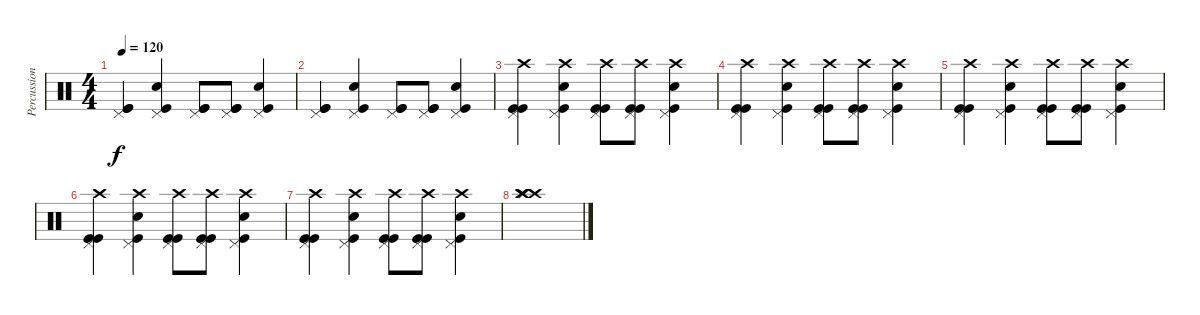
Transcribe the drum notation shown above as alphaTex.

\track ("Percussions" "Percussion") {instrument percussion}
\staff {score}
\articulation defaults
\ts (4 4)
\tempo 120
\clef neutral
\ks c
("Kick (hit)" "Pedal Hi-Hat (hit)" "Kick (hit)").4{dy f} ("Electric Snare (hit)" "Pedal Hi-Hat (hit)" "Kick (hit)").4 ("Kick (hit)" "Pedal Hi-Hat (hit)" "Kick (hit)").8 ("Kick (hit)" "Pedal Hi-Hat (hit)" "Kick (hit)").8 ("Electric Snare (hit)" "Pedal Hi-Hat (hit)" "Kick (hit)").4 |
("Kick (hit)" "Pedal Hi-Hat (hit)" "Kick (hit)").4 ("Electric Snare (hit)" "Pedal Hi-Hat (hit)" "Kick (hit)").4 ("Kick (hit)" "Pedal Hi-Hat (hit)" "Kick (hit)").8 ("Kick (hit)" "Pedal Hi-Hat (hit)" "Kick (hit)").8 ("Electric Snare (hit)" "Pedal Hi-Hat (hit)" "Kick (hit)").4 |
("Kick (hit)" "Crash high (hit)" "Pedal Hi-Hat (hit)" "Kick (hit)").4 ("Electric Snare (hit)" "Crash high (hit)" "Pedal Hi-Hat (hit)" "Kick (hit)").4 ("Kick (hit)" "Crash high (hit)" "Pedal Hi-Hat (hit)" "Kick (hit)").8 ("Kick (hit)" "Crash high (hit)" "Pedal Hi-Hat (hit)" "Kick (hit)").8 ("Electric Snare (hit)" "Crash high (hit)" "Pedal Hi-Hat (hit)" "Kick (hit)").4 |
("Kick (hit)" "Crash high (hit)" "Pedal Hi-Hat (hit)" "Kick (hit)").4 ("Electric Snare (hit)" "Crash high (hit)" "Pedal Hi-Hat (hit)" "Kick (hit)").4 ("Kick (hit)" "Crash high (hit)" "Pedal Hi-Hat (hit)" "Kick (hit)").8 ("Kick (hit)" "Crash high (hit)" "Pedal Hi-Hat (hit)" "Kick (hit)").8 ("Electric Snare (hit)" "Crash high (hit)" "Pedal Hi-Hat (hit)" "Kick (hit)").4 |
("Kick (hit)" "Crash high (hit)" "Pedal Hi-Hat (hit)" "Kick (hit)").4 ("Electric Snare (hit)" "Crash high (hit)" "Pedal Hi-Hat (hit)" "Kick (hit)").4 ("Kick (hit)" "Crash high (hit)" "Pedal Hi-Hat (hit)" "Kick (hit)").8 ("Kick (hit)" "Crash high (hit)" "Pedal Hi-Hat (hit)" "Kick (hit)").8 ("Electric Snare (hit)" "Crash high (hit)" "Pedal Hi-Hat (hit)" "Kick (hit)").4 |
("Kick (hit)" "Crash high (hit)" "Pedal Hi-Hat (hit)" "Kick (hit)").4 ("Electric Snare (hit)" "Crash high (hit)" "Pedal Hi-Hat (hit)" "Kick (hit)").4 ("Kick (hit)" "Crash high (hit)" "Pedal Hi-Hat (hit)" "Kick (hit)").8 ("Kick (hit)" "Crash high (hit)" "Pedal Hi-Hat (hit)" "Kick (hit)").8 ("Electric Snare (hit)" "Crash high (hit)" "Pedal Hi-Hat (hit)" "Kick (hit)").4 |
("Kick (hit)" "Crash high (hit)" "Pedal Hi-Hat (hit)" "Kick (hit)").4 ("Electric Snare (hit)" "Crash high (hit)" "Pedal Hi-Hat (hit)" "Kick (hit)").4 ("Kick (hit)" "Crash high (hit)" "Pedal Hi-Hat (hit)" "Kick (hit)").8 ("Kick (hit)" "Crash high (hit)" "Pedal Hi-Hat (hit)" "Kick (hit)").8 ("Electric Snare (hit)" "Crash high (hit)" "Pedal Hi-Hat (hit)" "Kick (hit)").4 |
("Crash high (hit)" "Crash high (hit)" "Crash high (hit)" "Splash (hit)").1
